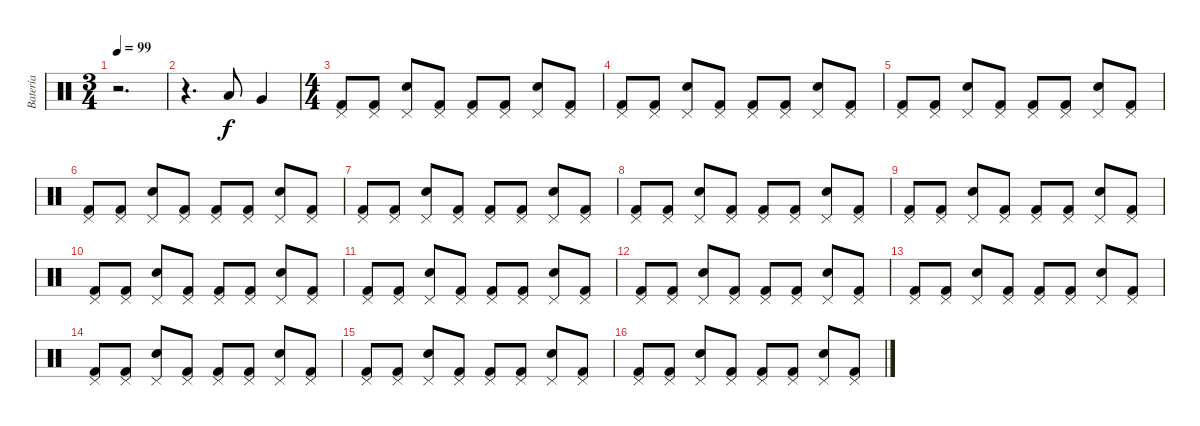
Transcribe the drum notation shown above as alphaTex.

\track ("Batería" "Batería") {instrument percussion}
\staff {score}
\articulation defaults
\ts (3 4)
\tempo 99
\clef neutral
\ks c
r.2{d dy f} |
r.4{d} "Low Tom (hit)".8 "Very Low Tom (hit)".4 |
\ts (4 4)
("Pedal Hi-Hat (hit)" "Kick (hit) 2").8 ("Pedal Hi-Hat (hit)" "Kick (hit) 2").8 ("Pedal Hi-Hat (hit)" "Snare (hit) 2").8 ("Pedal Hi-Hat (hit)" "Kick (hit) 2").8 ("Pedal Hi-Hat (hit)" "Kick (hit) 2").8 ("Pedal Hi-Hat (hit)" "Kick (hit) 2").8 ("Pedal Hi-Hat (hit)" "Snare (hit) 2").8 ("Pedal Hi-Hat (hit)" "Kick (hit) 2").8 |
("Pedal Hi-Hat (hit)" "Kick (hit) 2").8 ("Pedal Hi-Hat (hit)" "Kick (hit) 2").8 ("Pedal Hi-Hat (hit)" "Snare (hit) 2").8 ("Pedal Hi-Hat (hit)" "Kick (hit) 2").8 ("Pedal Hi-Hat (hit)" "Kick (hit) 2").8 ("Pedal Hi-Hat (hit)" "Kick (hit) 2").8 ("Pedal Hi-Hat (hit)" "Snare (hit) 2").8 ("Pedal Hi-Hat (hit)" "Kick (hit) 2").8 |
("Pedal Hi-Hat (hit)" "Kick (hit) 2").8 ("Pedal Hi-Hat (hit)" "Kick (hit) 2").8 ("Pedal Hi-Hat (hit)" "Snare (hit) 2").8 ("Pedal Hi-Hat (hit)" "Kick (hit) 2").8 ("Pedal Hi-Hat (hit)" "Kick (hit) 2").8 ("Pedal Hi-Hat (hit)" "Kick (hit) 2").8 ("Pedal Hi-Hat (hit)" "Snare (hit) 2").8 ("Pedal Hi-Hat (hit)" "Kick (hit) 2").8 |
("Pedal Hi-Hat (hit)" "Kick (hit) 2").8 ("Pedal Hi-Hat (hit)" "Kick (hit) 2").8 ("Pedal Hi-Hat (hit)" "Snare (hit) 2").8 ("Pedal Hi-Hat (hit)" "Kick (hit) 2").8 ("Pedal Hi-Hat (hit)" "Kick (hit) 2").8 ("Pedal Hi-Hat (hit)" "Kick (hit) 2").8 ("Pedal Hi-Hat (hit)" "Snare (hit) 2").8 ("Pedal Hi-Hat (hit)" "Kick (hit) 2").8 |
("Pedal Hi-Hat (hit)" "Kick (hit) 2").8 ("Pedal Hi-Hat (hit)" "Kick (hit) 2").8 ("Pedal Hi-Hat (hit)" "Snare (hit) 2").8 ("Pedal Hi-Hat (hit)" "Kick (hit) 2").8 ("Pedal Hi-Hat (hit)" "Kick (hit) 2").8 ("Pedal Hi-Hat (hit)" "Kick (hit) 2").8 ("Pedal Hi-Hat (hit)" "Snare (hit) 2").8 ("Pedal Hi-Hat (hit)" "Kick (hit) 2").8 |
("Pedal Hi-Hat (hit)" "Kick (hit) 2").8 ("Pedal Hi-Hat (hit)" "Kick (hit) 2").8 ("Pedal Hi-Hat (hit)" "Snare (hit) 2").8 ("Pedal Hi-Hat (hit)" "Kick (hit) 2").8 ("Pedal Hi-Hat (hit)" "Kick (hit) 2").8 ("Pedal Hi-Hat (hit)" "Kick (hit) 2").8 ("Pedal Hi-Hat (hit)" "Snare (hit) 2").8 ("Pedal Hi-Hat (hit)" "Kick (hit) 2").8 |
("Pedal Hi-Hat (hit)" "Kick (hit) 2").8 ("Pedal Hi-Hat (hit)" "Kick (hit) 2").8 ("Pedal Hi-Hat (hit)" "Snare (hit) 2").8 ("Pedal Hi-Hat (hit)" "Kick (hit) 2").8 ("Pedal Hi-Hat (hit)" "Kick (hit) 2").8 ("Pedal Hi-Hat (hit)" "Kick (hit) 2").8 ("Pedal Hi-Hat (hit)" "Snare (hit) 2").8 ("Pedal Hi-Hat (hit)" "Kick (hit) 2").8 |
("Pedal Hi-Hat (hit)" "Kick (hit) 2").8 ("Pedal Hi-Hat (hit)" "Kick (hit) 2").8 ("Pedal Hi-Hat (hit)" "Snare (hit) 2").8 ("Pedal Hi-Hat (hit)" "Kick (hit) 2").8 ("Pedal Hi-Hat (hit)" "Kick (hit) 2").8 ("Pedal Hi-Hat (hit)" "Kick (hit) 2").8 ("Pedal Hi-Hat (hit)" "Snare (hit) 2").8 ("Pedal Hi-Hat (hit)" "Kick (hit) 2").8 |
("Pedal Hi-Hat (hit)" "Kick (hit) 2").8 ("Pedal Hi-Hat (hit)" "Kick (hit) 2").8 ("Pedal Hi-Hat (hit)" "Snare (hit) 2").8 ("Pedal Hi-Hat (hit)" "Kick (hit) 2").8 ("Pedal Hi-Hat (hit)" "Kick (hit) 2").8 ("Pedal Hi-Hat (hit)" "Kick (hit) 2").8 ("Pedal Hi-Hat (hit)" "Snare (hit) 2").8 ("Pedal Hi-Hat (hit)" "Kick (hit) 2").8 |
("Pedal Hi-Hat (hit)" "Kick (hit) 2").8 ("Pedal Hi-Hat (hit)" "Kick (hit) 2").8 ("Pedal Hi-Hat (hit)" "Snare (hit) 2").8 ("Pedal Hi-Hat (hit)" "Kick (hit) 2").8 ("Pedal Hi-Hat (hit)" "Kick (hit) 2").8 ("Pedal Hi-Hat (hit)" "Kick (hit) 2").8 ("Pedal Hi-Hat (hit)" "Snare (hit) 2").8 ("Pedal Hi-Hat (hit)" "Kick (hit) 2").8 |
("Pedal Hi-Hat (hit)" "Kick (hit) 2").8 ("Pedal Hi-Hat (hit)" "Kick (hit) 2").8 ("Pedal Hi-Hat (hit)" "Snare (hit) 2").8 ("Pedal Hi-Hat (hit)" "Kick (hit) 2").8 ("Pedal Hi-Hat (hit)" "Kick (hit) 2").8 ("Pedal Hi-Hat (hit)" "Kick (hit) 2").8 ("Pedal Hi-Hat (hit)" "Snare (hit) 2").8 ("Pedal Hi-Hat (hit)" "Kick (hit) 2").8 |
("Pedal Hi-Hat (hit)" "Kick (hit) 2").8 ("Pedal Hi-Hat (hit)" "Kick (hit) 2").8 ("Pedal Hi-Hat (hit)" "Snare (hit) 2").8 ("Pedal Hi-Hat (hit)" "Kick (hit) 2").8 ("Pedal Hi-Hat (hit)" "Kick (hit) 2").8 ("Pedal Hi-Hat (hit)" "Kick (hit) 2").8 ("Pedal Hi-Hat (hit)" "Snare (hit) 2").8 ("Pedal Hi-Hat (hit)" "Kick (hit) 2").8 |
("Pedal Hi-Hat (hit)" "Kick (hit) 2").8 ("Pedal Hi-Hat (hit)" "Kick (hit) 2").8 ("Pedal Hi-Hat (hit)" "Snare (hit) 2").8 ("Pedal Hi-Hat (hit)" "Kick (hit) 2").8 ("Pedal Hi-Hat (hit)" "Kick (hit) 2").8 ("Pedal Hi-Hat (hit)" "Kick (hit) 2").8 ("Pedal Hi-Hat (hit)" "Snare (hit) 2").8 ("Pedal Hi-Hat (hit)" "Kick (hit) 2").8 |
("Pedal Hi-Hat (hit)" "Kick (hit) 2").8 ("Pedal Hi-Hat (hit)" "Kick (hit) 2").8 ("Pedal Hi-Hat (hit)" "Snare (hit) 2").8 ("Pedal Hi-Hat (hit)" "Kick (hit) 2").8 ("Pedal Hi-Hat (hit)" "Kick (hit) 2").8 ("Pedal Hi-Hat (hit)" "Kick (hit) 2").8 ("Pedal Hi-Hat (hit)" "Snare (hit) 2").8 ("Pedal Hi-Hat (hit)" "Kick (hit) 2").8
